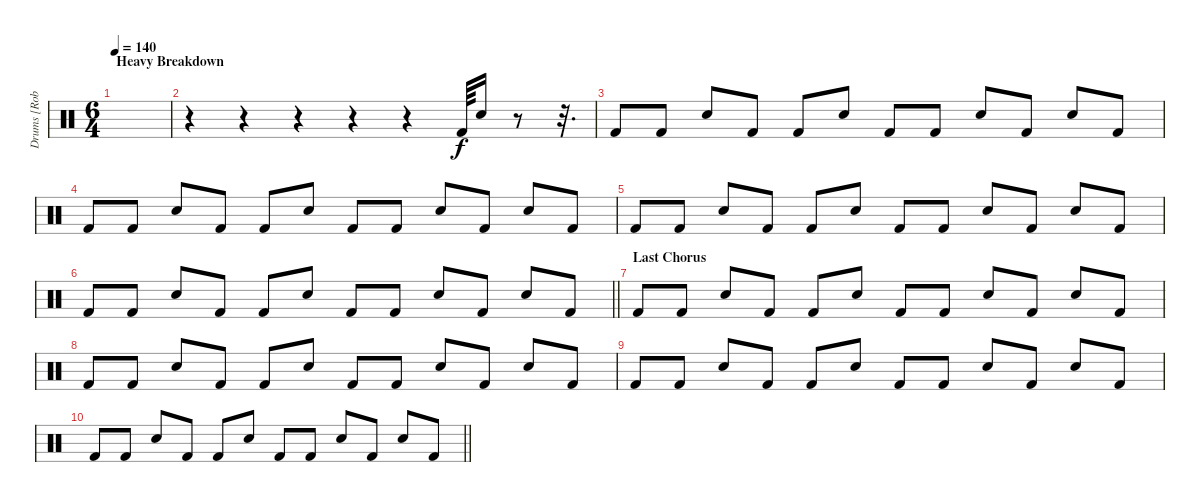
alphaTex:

\track ("Drums [Rob Bourdon]" "Drums [Rob") {instrument percussion}
\staff {score}
\articulation defaults
\ts (6 4)
\section ("" "Heavy Breakdown")
\tempo 140
\clef neutral
\ks c
|
r.4 r.4 r.4 r.4 r.4 "Kick (hit) 2".64 "Snare (hit) 2".16 r.8 r.32{d} |
"Kick (hit) 2".8 "Kick (hit) 2".8 "Snare (hit) 2".8 "Kick (hit) 2".8 "Kick (hit) 2".8 "Snare (hit) 2".8 "Kick (hit) 2".8 "Kick (hit) 2".8 "Snare (hit) 2".8 "Kick (hit) 2".8 "Snare (hit) 2".8 "Kick (hit) 2".8 |
"Kick (hit) 2".8 "Kick (hit) 2".8 "Snare (hit) 2".8 "Kick (hit) 2".8 "Kick (hit) 2".8 "Snare (hit) 2".8 "Kick (hit) 2".8 "Kick (hit) 2".8 "Snare (hit) 2".8 "Kick (hit) 2".8 "Snare (hit) 2".8 "Kick (hit) 2".8 |
"Kick (hit) 2".8 "Kick (hit) 2".8 "Snare (hit) 2".8 "Kick (hit) 2".8 "Kick (hit) 2".8 "Snare (hit) 2".8 "Kick (hit) 2".8 "Kick (hit) 2".8 "Snare (hit) 2".8 "Kick (hit) 2".8 "Snare (hit) 2".8 "Kick (hit) 2".8 |
\barLineRight lightlight "Kick (hit) 2".8 "Kick (hit) 2".8 "Snare (hit) 2".8 "Kick (hit) 2".8 "Kick (hit) 2".8 "Snare (hit) 2".8 "Kick (hit) 2".8 "Kick (hit) 2".8 "Snare (hit) 2".8 "Kick (hit) 2".8 "Snare (hit) 2".8 "Kick (hit) 2".8
|
\section ("" "Last Chorus")
"Kick (hit) 2".8 "Kick (hit) 2".8 "Snare (hit) 2".8 "Kick (hit) 2".8 "Kick (hit) 2".8 "Snare (hit) 2".8 "Kick (hit) 2".8 "Kick (hit) 2".8 "Snare (hit) 2".8 "Kick (hit) 2".8 "Snare (hit) 2".8 "Kick (hit) 2".8 |
"Kick (hit) 2".8 "Kick (hit) 2".8 "Snare (hit) 2".8 "Kick (hit) 2".8 "Kick (hit) 2".8 "Snare (hit) 2".8 "Kick (hit) 2".8 "Kick (hit) 2".8 "Snare (hit) 2".8 "Kick (hit) 2".8 "Snare (hit) 2".8 "Kick (hit) 2".8 |
"Kick (hit) 2".8 "Kick (hit) 2".8 "Snare (hit) 2".8 "Kick (hit) 2".8 "Kick (hit) 2".8 "Snare (hit) 2".8 "Kick (hit) 2".8 "Kick (hit) 2".8 "Snare (hit) 2".8 "Kick (hit) 2".8 "Snare (hit) 2".8 "Kick (hit) 2".8 |
\barLineRight lightlight "Kick (hit) 2".8 "Kick (hit) 2".8 "Snare (hit) 2".8 "Kick (hit) 2".8 "Kick (hit) 2".8 "Snare (hit) 2".8 "Kick (hit) 2".8 "Kick (hit) 2".8 "Snare (hit) 2".8 "Kick (hit) 2".8 "Snare (hit) 2".8 "Kick (hit) 2".8
